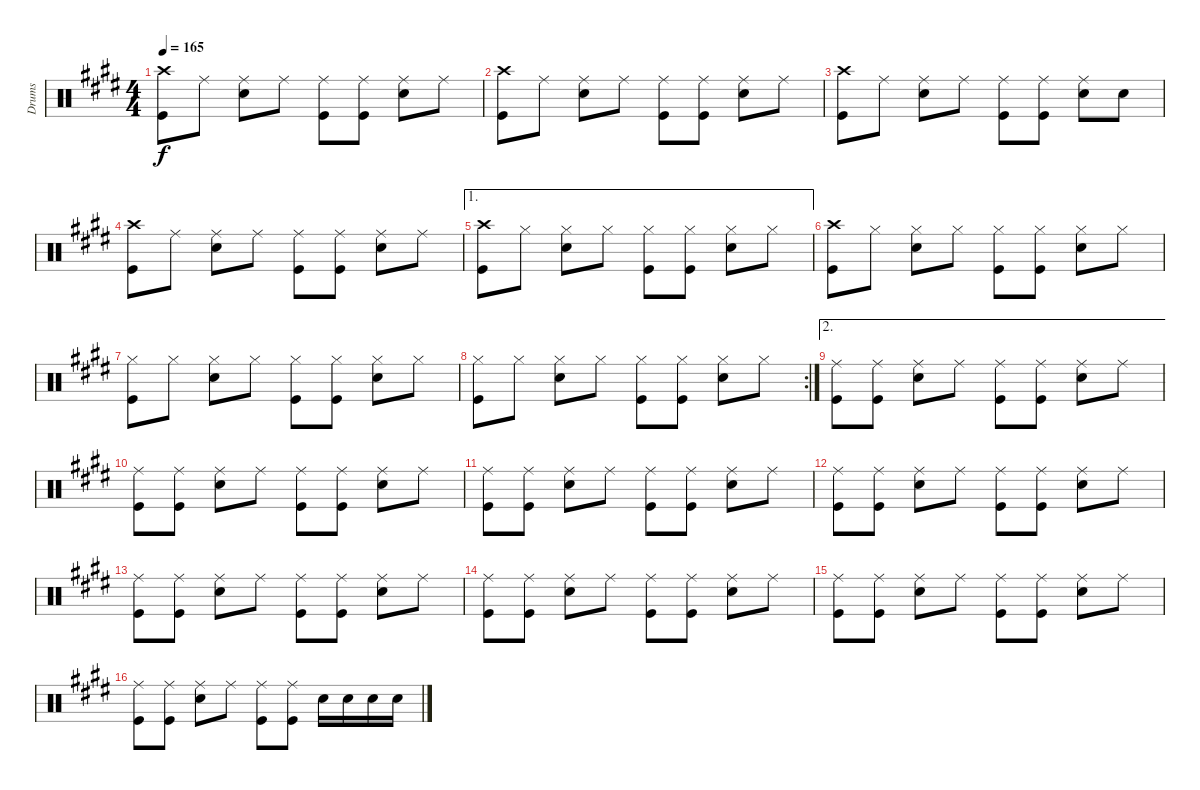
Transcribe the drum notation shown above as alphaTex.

\track ("Drums" "Drums") {instrument percussion}
\staff {score}
\articulation defaults
\ts (4 4)
\tempo 165
\clef neutral
\ks e
("Crash high (hit)" "Kick (hit)").8{dy f} "Ride (middle)".8 ("Ride (middle)" "Snare (hit) 2").8 "Ride (middle)".8 ("Ride (middle)" "Kick (hit)").8 ("Ride (middle)" "Kick (hit)").8 ("Ride (middle)" "Snare (hit) 2").8 "Ride (middle)".8 |
("Crash high (hit)" "Kick (hit)").8 "Ride (middle)".8 ("Ride (middle)" "Snare (hit) 2").8 "Ride (middle)".8 ("Ride (middle)" "Kick (hit)").8 ("Ride (middle)" "Kick (hit)").8 ("Ride (middle)" "Snare (hit) 2").8 "Ride (middle)".8 |
("Crash high (hit)" "Kick (hit)").8 "Ride (middle)".8 ("Ride (middle)" "Snare (hit) 2").8 "Ride (middle)".8 ("Ride (middle)" "Kick (hit)").8 ("Ride (middle)" "Kick (hit)").8 ("Ride (middle)" "Snare (hit) 2").8 "Snare (hit)".8 |
("Crash high (hit)" "Kick (hit)").8 "Ride (middle)".8 ("Ride (middle)" "Snare (hit) 2").8 "Ride (middle)".8 ("Ride (middle)" "Kick (hit)").8 ("Ride (middle)" "Kick (hit)").8 ("Ride (middle)" "Snare (hit) 2").8 "Ride (middle)".8 |
\ae 1
("Crash high (hit)" "Kick (hit)").8 "Hi-Hat (closed)".8 ("Hi-Hat (closed)" "Snare (hit) 2").8 "Hi-Hat (closed)".8 ("Hi-Hat (closed)" "Kick (hit)").8 ("Hi-Hat (closed)" "Kick (hit)").8 ("Hi-Hat (closed)" "Snare (hit) 2").8 "Hi-Hat (closed)".8 |
("Crash high (hit)" "Kick (hit)").8 "Hi-Hat (closed)".8 ("Hi-Hat (closed)" "Snare (hit) 2").8 "Hi-Hat (closed)".8 ("Hi-Hat (closed)" "Kick (hit)").8 ("Hi-Hat (closed)" "Kick (hit)").8 ("Hi-Hat (closed)" "Snare (hit) 2").8 "Hi-Hat (closed)".8 |
("Hi-Hat (closed)" "Kick (hit)").8 "Hi-Hat (closed)".8 ("Hi-Hat (closed)" "Snare (hit) 2").8 "Hi-Hat (closed)".8 ("Hi-Hat (closed)" "Kick (hit)").8 ("Hi-Hat (closed)" "Kick (hit)").8 ("Hi-Hat (closed)" "Snare (hit) 2").8 "Hi-Hat (closed)".8 |
\rc 2
("Hi-Hat (closed)" "Kick (hit)").8 "Hi-Hat (closed)".8 ("Hi-Hat (closed)" "Snare (hit) 2").8 "Hi-Hat (closed)".8 ("Hi-Hat (closed)" "Kick (hit)").8 ("Hi-Hat (closed)" "Kick (hit)").8 ("Hi-Hat (closed)" "Snare (hit) 2").8 "Hi-Hat (closed)".8 |
\ae 2
("Ride (middle)" "Kick (hit)").8 ("Ride (middle)" "Kick (hit)").8 ("Ride (middle)" "Snare (hit) 2").8 "Ride (middle)".8 ("Ride (middle)" "Kick (hit)").8 ("Ride (middle)" "Kick (hit)").8 ("Ride (middle)" "Snare (hit) 2").8 "Ride (middle)".8 |
("Ride (middle)" "Kick (hit)").8 ("Ride (middle)" "Kick (hit)").8 ("Ride (middle)" "Snare (hit) 2").8 "Ride (middle)".8 ("Ride (middle)" "Kick (hit)").8 ("Ride (middle)" "Kick (hit)").8 ("Ride (middle)" "Snare (hit) 2").8 "Ride (middle)".8 |
("Ride (middle)" "Kick (hit)").8 ("Ride (middle)" "Kick (hit)").8 ("Ride (middle)" "Snare (hit) 2").8 "Ride (middle)".8 ("Ride (middle)" "Kick (hit)").8 ("Ride (middle)" "Kick (hit)").8 ("Ride (middle)" "Snare (hit) 2").8 "Ride (middle)".8 |
("Ride (middle)" "Kick (hit)").8 ("Ride (middle)" "Kick (hit)").8 ("Ride (middle)" "Snare (hit) 2").8 "Ride (middle)".8 ("Ride (middle)" "Kick (hit)").8 ("Ride (middle)" "Kick (hit)").8 ("Ride (middle)" "Snare (hit) 2").8 "Ride (middle)".8 |
("Ride (middle)" "Kick (hit)").8 ("Ride (middle)" "Kick (hit)").8 ("Ride (middle)" "Snare (hit) 2").8 "Ride (middle)".8 ("Ride (middle)" "Kick (hit)").8 ("Ride (middle)" "Kick (hit)").8 ("Ride (middle)" "Snare (hit) 2").8 "Ride (middle)".8 |
("Ride (middle)" "Kick (hit)").8 ("Ride (middle)" "Kick (hit)").8 ("Ride (middle)" "Snare (hit) 2").8 "Ride (middle)".8 ("Ride (middle)" "Kick (hit)").8 ("Ride (middle)" "Kick (hit)").8 ("Ride (middle)" "Snare (hit) 2").8 "Ride (middle)".8 |
("Ride (middle)" "Kick (hit)").8 ("Ride (middle)" "Kick (hit)").8 ("Ride (middle)" "Snare (hit) 2").8 "Ride (middle)".8 ("Ride (middle)" "Kick (hit)").8 ("Ride (middle)" "Kick (hit)").8 ("Ride (middle)" "Snare (hit) 2").8 "Ride (middle)".8 |
("Ride (middle)" "Kick (hit)").8 ("Ride (middle)" "Kick (hit)").8 ("Ride (middle)" "Snare (hit) 2").8 "Ride (middle)".8 ("Ride (middle)" "Kick (hit)").8 ("Ride (middle)" "Kick (hit)").8 "Snare (hit) 2".16 "Snare (hit) 2".16 "Snare (hit) 2".16 "Snare (hit) 2".16
